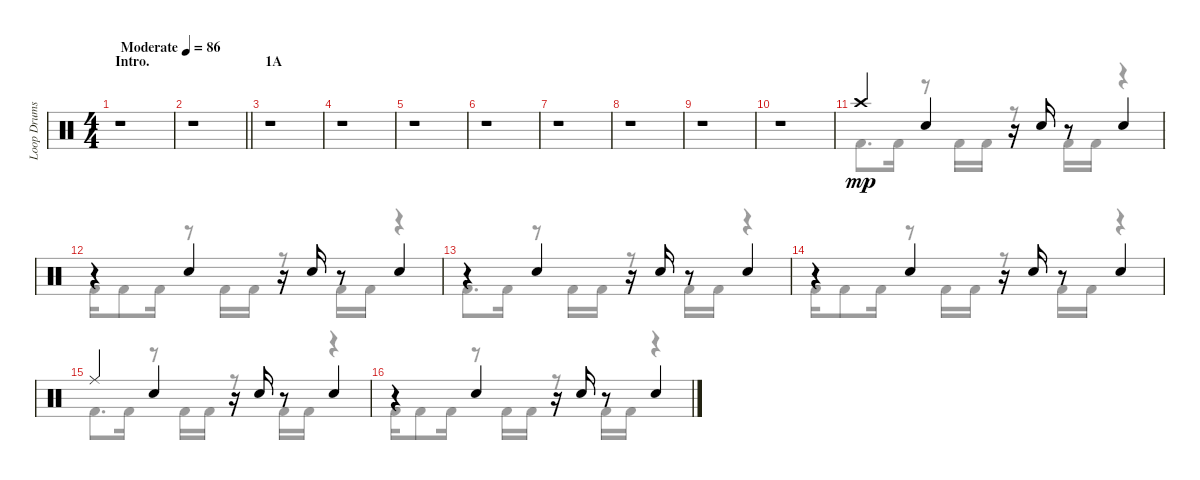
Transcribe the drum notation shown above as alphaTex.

\track ("Loop Drums I" "Loop Drums") {instrument percussion}
\staff {score}
\articulation defaults
\voice
\ts (4 4)
\section ("" "Intro.")
\tempo (86 "Moderate")
\clef neutral
\ks c
r.1{dy mp} |
\barLineRight lightlight
r.1 |
\section ("" "1A")
r.1 |
r.1 |
r.1 |
r.1 |
r.1 |
r.1 |
r.1 |
r.1 |
"Crash high (hit)".4 "Electric Snare (hit)".4 r.16 "Electric Snare (hit)".16 r.8 "Electric Snare (hit)".4 |
r.4 "Electric Snare (hit)".4 r.16 "Electric Snare (hit)".16 r.8 "Electric Snare (hit)".4 |
r.4 "Electric Snare (hit)".4 r.16 "Electric Snare (hit)".16 r.8 "Electric Snare (hit)".4 |
r.4 "Electric Snare (hit)".4 r.16 "Electric Snare (hit)".16 r.8 "Electric Snare (hit)".4 |
"Ride (middle)".4 "Electric Snare (hit)".4 r.16 "Electric Snare (hit)".16 r.8 "Electric Snare (hit)".4 |
r.4 "Electric Snare (hit)".4 r.16 "Electric Snare (hit)".16 r.8 "Electric Snare (hit)".4
\voice
\clef neutral
\ottava regular
\simile none
\ks c
r.1{dy mp} |
\barLineRight lightlight
r.1 |
r.1 |
r.1 |
r.1 |
r.1 |
r.1 |
r.1 |
r.1 |
r.1 |
"Kick (hit) 2".8{d} "Kick (hit) 2".16 r.8 "Kick (hit) 2".16 "Kick (hit) 2".16 r.8 "Kick (hit) 2".16 "Kick (hit) 2".16 r.4 |
"Kick (hit) 2".16 "Kick (hit) 2".8 "Kick (hit) 2".16 r.8 "Kick (hit) 2".16 "Kick (hit) 2".16 r.8 "Kick (hit) 2".16 "Kick (hit) 2".16 r.4 |
"Kick (hit) 2".8{d} "Kick (hit) 2".16 r.8 "Kick (hit) 2".16 "Kick (hit) 2".16 r.8 "Kick (hit) 2".16 "Kick (hit) 2".16 r.4 |
"Kick (hit) 2".16 "Kick (hit) 2".8 "Kick (hit) 2".16 r.8 "Kick (hit) 2".16 "Kick (hit) 2".16 r.8 "Kick (hit) 2".16 "Kick (hit) 2".16 r.4 |
"Kick (hit) 2".8{d} "Kick (hit) 2".16 r.8 "Kick (hit) 2".16 "Kick (hit) 2".16 r.8 "Kick (hit) 2".16 "Kick (hit) 2".16 r.4 |
"Kick (hit) 2".16 "Kick (hit) 2".8 "Kick (hit) 2".16 r.8 "Kick (hit) 2".16 "Kick (hit) 2".16 r.8 "Kick (hit) 2".16 "Kick (hit) 2".16 r.4
